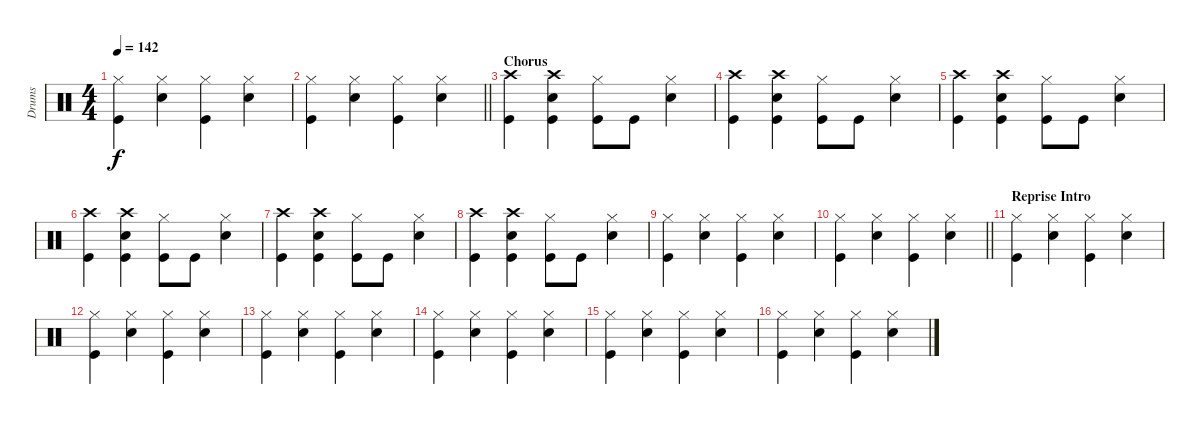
\track ("Drums" "Drums") {instrument percussion}
\staff {score}
\articulation defaults
\ts (4 4)
\tempo 142
\clef neutral
\ks c
("Hi-Hat (closed)" "Kick (hit)").4{dy f} ("Hi-Hat (closed)" "Snare (hit) 2").4 ("Hi-Hat (closed)" "Kick (hit)").4 ("Hi-Hat (closed)" "Snare (hit) 2").4 |
\barLineRight lightlight
("Hi-Hat (closed)" "Kick (hit)").4 ("Hi-Hat (closed)" "Snare (hit) 2").4 ("Hi-Hat (closed)" "Kick (hit)").4 ("Hi-Hat (closed)" "Snare (hit) 2").4 |
\section ("" "Chorus")
("Crash high (hit)" "Kick (hit)").4 ("Crash high (hit)" "Snare (hit) 2" "Kick (hit)").4 ("Hi-Hat (closed)" "Kick (hit)").8 "Kick (hit)".8 ("Hi-Hat (closed)" "Snare (hit) 2").4 |
("Crash high (hit)" "Kick (hit)").4 ("Crash high (hit)" "Snare (hit) 2" "Kick (hit)").4 ("Hi-Hat (closed)" "Kick (hit)").8 "Kick (hit)".8 ("Hi-Hat (closed)" "Snare (hit) 2").4 |
("Crash high (hit)" "Kick (hit)").4 ("Crash high (hit)" "Snare (hit) 2" "Kick (hit)").4 ("Hi-Hat (closed)" "Kick (hit)").8 "Kick (hit)".8 ("Hi-Hat (closed)" "Snare (hit) 2").4 |
("Crash high (hit)" "Kick (hit)").4 ("Crash high (hit)" "Snare (hit) 2" "Kick (hit)").4 ("Hi-Hat (closed)" "Kick (hit)").8 "Kick (hit)".8 ("Hi-Hat (closed)" "Snare (hit) 2").4 |
("Crash high (hit)" "Kick (hit)").4 ("Crash high (hit)" "Snare (hit) 2" "Kick (hit)").4 ("Hi-Hat (closed)" "Kick (hit)").8 "Kick (hit)".8 ("Hi-Hat (closed)" "Snare (hit) 2").4 |
("Crash high (hit)" "Kick (hit)").4 ("Crash high (hit)" "Snare (hit) 2" "Kick (hit)").4 ("Hi-Hat (closed)" "Kick (hit)").8 "Kick (hit)".8 ("Hi-Hat (closed)" "Snare (hit) 2").4 |
("Hi-Hat (closed)" "Kick (hit)").4 ("Hi-Hat (closed)" "Snare (hit) 2").4 ("Hi-Hat (closed)" "Kick (hit)").4 ("Hi-Hat (closed)" "Snare (hit) 2").4 |
\barLineRight lightlight
("Hi-Hat (closed)" "Kick (hit)").4 ("Hi-Hat (closed)" "Snare (hit) 2").4 ("Hi-Hat (closed)" "Kick (hit)").4 ("Hi-Hat (closed)" "Snare (hit) 2").4 |
\section ("" "Reprise Intro")
("Hi-Hat (closed)" "Kick (hit)").4 ("Hi-Hat (closed)" "Snare (hit) 2").4 ("Hi-Hat (closed)" "Kick (hit)").4 ("Hi-Hat (closed)" "Snare (hit) 2").4 |
("Hi-Hat (closed)" "Kick (hit)").4 ("Hi-Hat (closed)" "Snare (hit) 2").4 ("Hi-Hat (closed)" "Kick (hit)").4 ("Hi-Hat (closed)" "Snare (hit) 2").4 |
("Hi-Hat (closed)" "Kick (hit)").4 ("Hi-Hat (closed)" "Snare (hit) 2").4 ("Hi-Hat (closed)" "Kick (hit)").4 ("Hi-Hat (closed)" "Snare (hit) 2").4 |
("Hi-Hat (closed)" "Kick (hit)").4 ("Hi-Hat (closed)" "Snare (hit) 2").4 ("Hi-Hat (closed)" "Kick (hit)").4 ("Hi-Hat (closed)" "Snare (hit) 2").4 |
("Hi-Hat (closed)" "Kick (hit)").4 ("Hi-Hat (closed)" "Snare (hit) 2").4 ("Hi-Hat (closed)" "Kick (hit)").4 ("Hi-Hat (closed)" "Snare (hit) 2").4 |
("Hi-Hat (closed)" "Kick (hit)").4 ("Hi-Hat (closed)" "Snare (hit) 2").4 ("Hi-Hat (closed)" "Kick (hit)").4 ("Hi-Hat (closed)" "Snare (hit) 2").4
